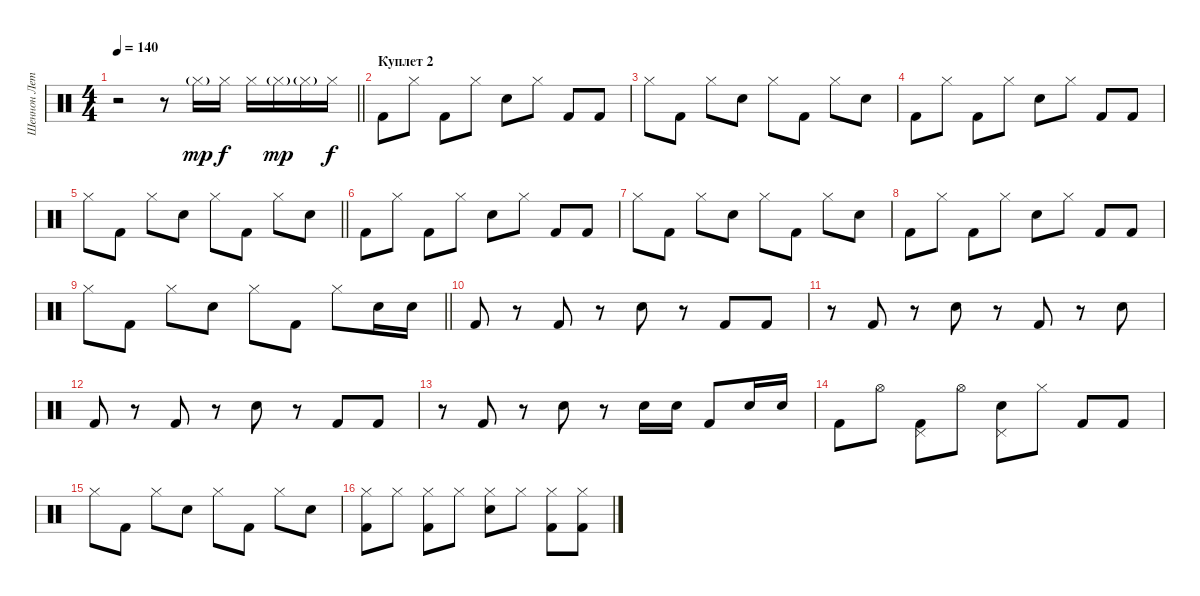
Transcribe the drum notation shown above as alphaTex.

\track ("Шеннон Лето" "Шеннон Лет") {instrument percussion}
\staff {score}
\articulation defaults
\ts (4 4)
\tempo 140
\clef neutral
\barLineRight lightlight
\ks c
r.2{dy f} r.8 "Hi-Hat (closed)"{g}.16{dy mp} "Hi-Hat (closed)".16{dy f} "Hi-Hat (closed)".16 "Hi-Hat (closed)"{g}.16{dy mp} "Hi-Hat (closed)"{g}.16 "Hi-Hat (closed)".16{dy f} |
\section ("" "Куплет 2")
"Kick (hit) 2".8 "Hi-Hat (closed)".8 "Kick (hit) 2".8 "Hi-Hat (closed)".8 "Electric Snare (hit)".8 "Hi-Hat (closed)".8 "Kick (hit) 2".8 "Kick (hit) 2".8 |
"Hi-Hat (closed)".8 "Kick (hit) 2".8 "Hi-Hat (closed)".8 "Electric Snare (hit)".8 "Hi-Hat (closed)".8 "Kick (hit) 2".8 "Hi-Hat (closed)".8 "Electric Snare (hit)".8 |
"Kick (hit) 2".8 "Hi-Hat (closed)".8 "Kick (hit) 2".8 "Hi-Hat (closed)".8 "Electric Snare (hit)".8 "Hi-Hat (closed)".8 "Kick (hit) 2".8 "Kick (hit) 2".8 |
\barLineRight lightlight "Hi-Hat (closed)".8 "Kick (hit) 2".8 "Hi-Hat (closed)".8 "Electric Snare (hit)".8 "Hi-Hat (closed)".8 "Kick (hit) 2".8 "Hi-Hat (closed)".8 "Electric Snare (hit)".8
|
"Kick (hit) 2".8 "Hi-Hat (closed)".8 "Kick (hit) 2".8 "Hi-Hat (closed)".8 "Electric Snare (hit)".8 "Hi-Hat (closed)".8 "Kick (hit) 2".8 "Kick (hit) 2".8 |
"Hi-Hat (closed)".8 "Kick (hit) 2".8 "Hi-Hat (closed)".8 "Electric Snare (hit)".8 "Hi-Hat (closed)".8 "Kick (hit) 2".8 "Hi-Hat (closed)".8 "Electric Snare (hit)".8 |
"Kick (hit) 2".8 "Hi-Hat (closed)".8 "Kick (hit) 2".8 "Hi-Hat (closed)".8 "Electric Snare (hit)".8 "Hi-Hat (closed)".8 "Kick (hit) 2".8 "Kick (hit) 2".8 |
\barLineRight lightlight "Hi-Hat (closed)".8 "Kick (hit) 2".8 "Hi-Hat (closed)".8 "Electric Snare (hit)".8 "Hi-Hat (closed)".8 "Kick (hit) 2".8 "Hi-Hat (closed)".8 "Electric Snare (hit)".16 "Electric Snare (hit)".16
|
"Kick (hit) 2".8 r.8 "Kick (hit) 2".8 r.8 "Electric Snare (hit)".8 r.8 "Kick (hit) 2".8 "Kick (hit) 2".8 |
r.8 "Kick (hit) 2".8 r.8 "Electric Snare (hit)".8 r.8 "Kick (hit) 2".8 r.8 "Electric Snare (hit)".8 |
"Kick (hit) 2".8 r.8 "Kick (hit) 2".8 r.8 "Electric Snare (hit)".8 r.8 "Kick (hit) 2".8 "Kick (hit) 2".8 |
r.8 "Kick (hit) 2".8 r.8 "Electric Snare (hit)".8 r.8 "Electric Snare (hit)".16 "Electric Snare (hit)".16 "Kick (hit) 2".8 "Electric Snare (hit)".16 "Electric Snare (hit)".16 |
"Kick (hit) 2".8 "Hi-Hat (open)".8 ("Pedal Hi-Hat (hit)" "Kick (hit) 2").8 "Hi-Hat (open)".8 ("Pedal Hi-Hat (hit)" "Electric Snare (hit)").8 "Hi-Hat (closed)".8 "Kick (hit) 2".8 "Kick (hit) 2".8 |
"Hi-Hat (closed)".8 "Kick (hit) 2".8 "Hi-Hat (closed)".8 "Electric Snare (hit)".8 "Hi-Hat (closed)".8 "Kick (hit) 2".8 "Hi-Hat (closed)".8 "Electric Snare (hit)".8 |
("Hi-Hat (closed)" "Kick (hit) 2").8 "Hi-Hat (closed)".8 ("Hi-Hat (closed)" "Kick (hit) 2").8 "Hi-Hat (closed)".8 ("Hi-Hat (closed)" "Electric Snare (hit)").8 "Hi-Hat (closed)".8 ("Hi-Hat (closed)" "Kick (hit) 2").8 ("Hi-Hat (closed)" "Kick (hit) 2").8
